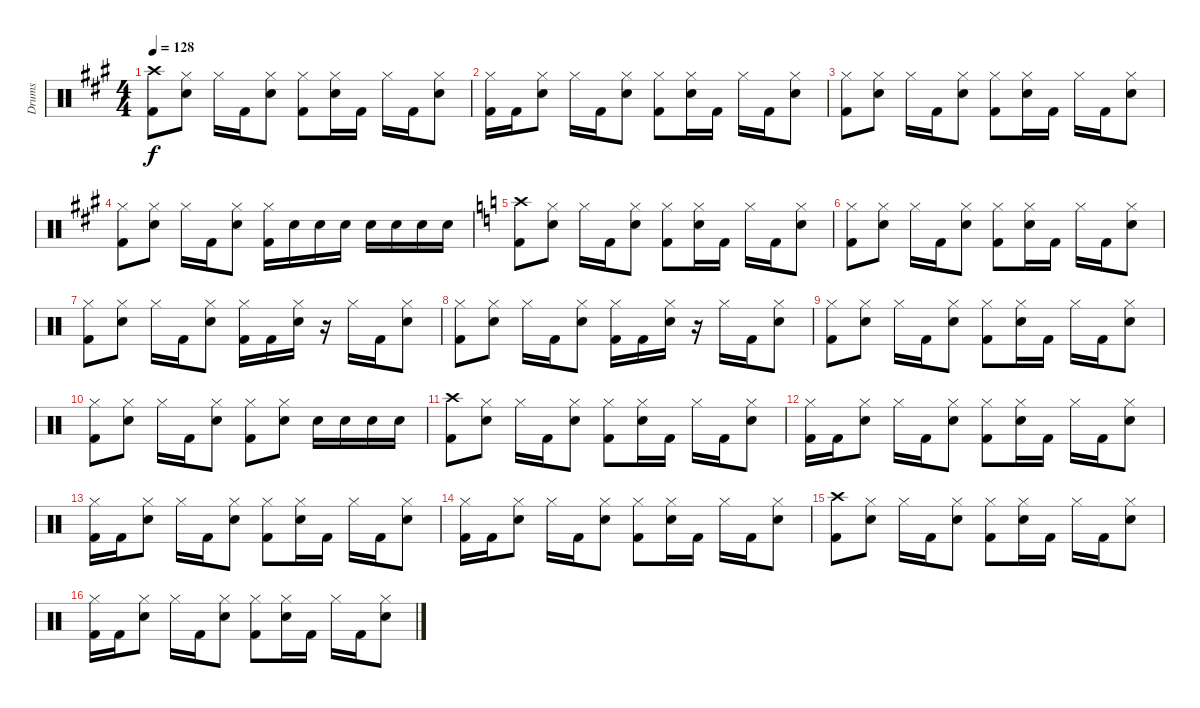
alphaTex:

\track ("Drums" "Drums") {instrument percussion}
\staff {score}
\articulation defaults
\ts (4 4)
\tempo 128
\clef neutral
\ks a
("Kick (hit) 2" "Crash high (hit)").8{dy f} ("Snare (hit) 2" "Hi-Hat (closed)").8 "Hi-Hat (closed)".16 "Kick (hit) 2".16 ("Snare (hit) 2" "Hi-Hat (closed)").8 ("Kick (hit) 2" "Hi-Hat (closed)").8 ("Snare (hit) 2" "Hi-Hat (closed)").16 "Kick (hit) 2".16 "Hi-Hat (closed)".16 "Kick (hit) 2".16 ("Snare (hit) 2" "Hi-Hat (closed)").8 |
("Kick (hit) 2" "Hi-Hat (closed)").16 "Kick (hit) 2".16 ("Snare (hit) 2" "Hi-Hat (closed)").8 "Hi-Hat (closed)".16 "Kick (hit) 2".16 ("Snare (hit) 2" "Hi-Hat (closed)").8 ("Kick (hit) 2" "Hi-Hat (closed)").8 ("Snare (hit) 2" "Hi-Hat (closed)").16 "Kick (hit) 2".16 "Hi-Hat (closed)".16 "Kick (hit) 2".16 ("Snare (hit) 2" "Hi-Hat (closed)").8 |
("Kick (hit) 2" "Hi-Hat (closed)").8 ("Snare (hit) 2" "Hi-Hat (closed)").8 "Hi-Hat (closed)".16 "Kick (hit) 2".16 ("Snare (hit) 2" "Hi-Hat (closed)").8 ("Kick (hit) 2" "Hi-Hat (closed)").8 ("Snare (hit) 2" "Hi-Hat (closed)").16 "Kick (hit) 2".16 "Hi-Hat (closed)".16 "Kick (hit) 2".16 ("Snare (hit) 2" "Hi-Hat (closed)").8 |
("Kick (hit) 2" "Hi-Hat (closed)").8 ("Snare (hit) 2" "Hi-Hat (closed)").8 "Hi-Hat (closed)".16 "Kick (hit) 2".16 ("Snare (hit) 2" "Hi-Hat (closed)").8 ("Kick (hit) 2" "Hi-Hat (closed)").16 "Snare (hit) 2".16 "Snare (hit) 2".16 "Snare (hit) 2".16 "Snare (hit) 2".16 "Snare (hit) 2".16 "Snare (hit) 2".16 "Snare (hit) 2".16 |
\ks c
("Kick (hit) 2" "Crash high (hit)").8 ("Snare (hit) 2" "Hi-Hat (closed)").8 "Hi-Hat (closed)".16 "Kick (hit) 2".16 ("Snare (hit) 2" "Hi-Hat (closed)").8 ("Kick (hit) 2" "Hi-Hat (closed)").8 ("Snare (hit) 2" "Hi-Hat (closed)").16 "Kick (hit) 2".16 "Hi-Hat (closed)".16 "Kick (hit) 2".16 ("Snare (hit) 2" "Hi-Hat (closed)").8 |
("Kick (hit) 2" "Hi-Hat (closed)").8 ("Snare (hit) 2" "Hi-Hat (closed)").8 "Hi-Hat (closed)".16 "Kick (hit) 2".16 ("Snare (hit) 2" "Hi-Hat (closed)").8 ("Kick (hit) 2" "Hi-Hat (closed)").8 ("Snare (hit) 2" "Hi-Hat (closed)").16 "Kick (hit) 2".16 "Hi-Hat (closed)".16 "Kick (hit) 2".16 ("Snare (hit) 2" "Hi-Hat (closed)").8 |
("Kick (hit) 2" "Hi-Hat (closed)").8 ("Snare (hit) 2" "Hi-Hat (closed)").8 "Hi-Hat (closed)".16 "Kick (hit) 2".16 ("Snare (hit) 2" "Hi-Hat (closed)").8 ("Kick (hit) 2" "Hi-Hat (closed)").16 "Kick (hit) 2".16 ("Snare (hit) 2" "Hi-Hat (closed)").16 r.16 "Hi-Hat (closed)".16 "Kick (hit) 2".16 ("Snare (hit) 2" "Hi-Hat (closed)").8 |
("Kick (hit) 2" "Hi-Hat (closed)").8 ("Snare (hit) 2" "Hi-Hat (closed)").8 "Hi-Hat (closed)".16 "Kick (hit) 2".16 ("Snare (hit) 2" "Hi-Hat (closed)").8 ("Kick (hit) 2" "Hi-Hat (closed)").16 "Kick (hit) 2".16 ("Snare (hit) 2" "Hi-Hat (closed)").16 r.16 "Hi-Hat (closed)".16 "Kick (hit) 2".16 ("Snare (hit) 2" "Hi-Hat (closed)").8 |
("Kick (hit) 2" "Hi-Hat (closed)").8 ("Snare (hit) 2" "Hi-Hat (closed)").8 "Hi-Hat (closed)".16 "Kick (hit) 2".16 ("Snare (hit) 2" "Hi-Hat (closed)").8 ("Kick (hit) 2" "Hi-Hat (closed)").8 ("Snare (hit) 2" "Hi-Hat (closed)").16 "Kick (hit) 2".16 "Hi-Hat (closed)".16 "Kick (hit) 2".16 ("Snare (hit) 2" "Hi-Hat (closed)").8 |
("Kick (hit) 2" "Hi-Hat (closed)").8 ("Snare (hit) 2" "Hi-Hat (closed)").8 "Hi-Hat (closed)".16 "Kick (hit) 2".16 ("Snare (hit) 2" "Hi-Hat (closed)").8 ("Kick (hit) 2" "Hi-Hat (closed)").8 ("Snare (hit) 2" "Hi-Hat (closed)").8 "Snare (hit) 2".16 "Snare (hit) 2".16 "Snare (hit) 2".16 "Snare (hit) 2".16 |
("Kick (hit) 2" "Crash high (hit)").8 ("Snare (hit) 2" "Hi-Hat (closed)").8 "Hi-Hat (closed)".16 "Kick (hit) 2".16 ("Snare (hit) 2" "Hi-Hat (closed)").8 ("Kick (hit) 2" "Hi-Hat (closed)").8 ("Snare (hit) 2" "Hi-Hat (closed)").16 "Kick (hit) 2".16 "Hi-Hat (closed)".16 "Kick (hit) 2".16 ("Snare (hit) 2" "Hi-Hat (closed)").8 |
("Kick (hit) 2" "Hi-Hat (closed)").16 "Kick (hit) 2".16 ("Snare (hit) 2" "Hi-Hat (closed)").8 "Hi-Hat (closed)".16 "Kick (hit) 2".16 ("Snare (hit) 2" "Hi-Hat (closed)").8 ("Kick (hit) 2" "Hi-Hat (closed)").8 ("Snare (hit) 2" "Hi-Hat (closed)").16 "Kick (hit) 2".16 "Hi-Hat (closed)".16 "Kick (hit) 2".16 ("Snare (hit) 2" "Hi-Hat (closed)").8 |
("Kick (hit) 2" "Hi-Hat (closed)").16 "Kick (hit) 2".16 ("Snare (hit) 2" "Hi-Hat (closed)").8 "Hi-Hat (closed)".16 "Kick (hit) 2".16 ("Snare (hit) 2" "Hi-Hat (closed)").8 ("Kick (hit) 2" "Hi-Hat (closed)").8 ("Snare (hit) 2" "Hi-Hat (closed)").16 "Kick (hit) 2".16 "Hi-Hat (closed)".16 "Kick (hit) 2".16 ("Snare (hit) 2" "Hi-Hat (closed)").8 |
("Kick (hit) 2" "Hi-Hat (closed)").16 "Kick (hit) 2".16 ("Snare (hit) 2" "Hi-Hat (closed)").8 "Hi-Hat (closed)".16 "Kick (hit) 2".16 ("Snare (hit) 2" "Hi-Hat (closed)").8 ("Kick (hit) 2" "Hi-Hat (closed)").8 ("Snare (hit) 2" "Hi-Hat (closed)").16 "Kick (hit) 2".16 "Hi-Hat (closed)".16 "Kick (hit) 2".16 ("Snare (hit) 2" "Hi-Hat (closed)").8 |
("Kick (hit) 2" "Crash high (hit)").8 ("Snare (hit) 2" "Hi-Hat (closed)").8 "Hi-Hat (closed)".16 "Kick (hit) 2".16 ("Snare (hit) 2" "Hi-Hat (closed)").8 ("Kick (hit) 2" "Hi-Hat (closed)").8 ("Snare (hit) 2" "Hi-Hat (closed)").16 "Kick (hit) 2".16 "Hi-Hat (closed)".16 "Kick (hit) 2".16 ("Snare (hit) 2" "Hi-Hat (closed)").8 |
("Kick (hit) 2" "Hi-Hat (closed)").16 "Kick (hit) 2".16 ("Snare (hit) 2" "Hi-Hat (closed)").8 "Hi-Hat (closed)".16 "Kick (hit) 2".16 ("Snare (hit) 2" "Hi-Hat (closed)").8 ("Kick (hit) 2" "Hi-Hat (closed)").8 ("Snare (hit) 2" "Hi-Hat (closed)").16 "Kick (hit) 2".16 "Hi-Hat (closed)".16 "Kick (hit) 2".16 ("Snare (hit) 2" "Hi-Hat (closed)").8
